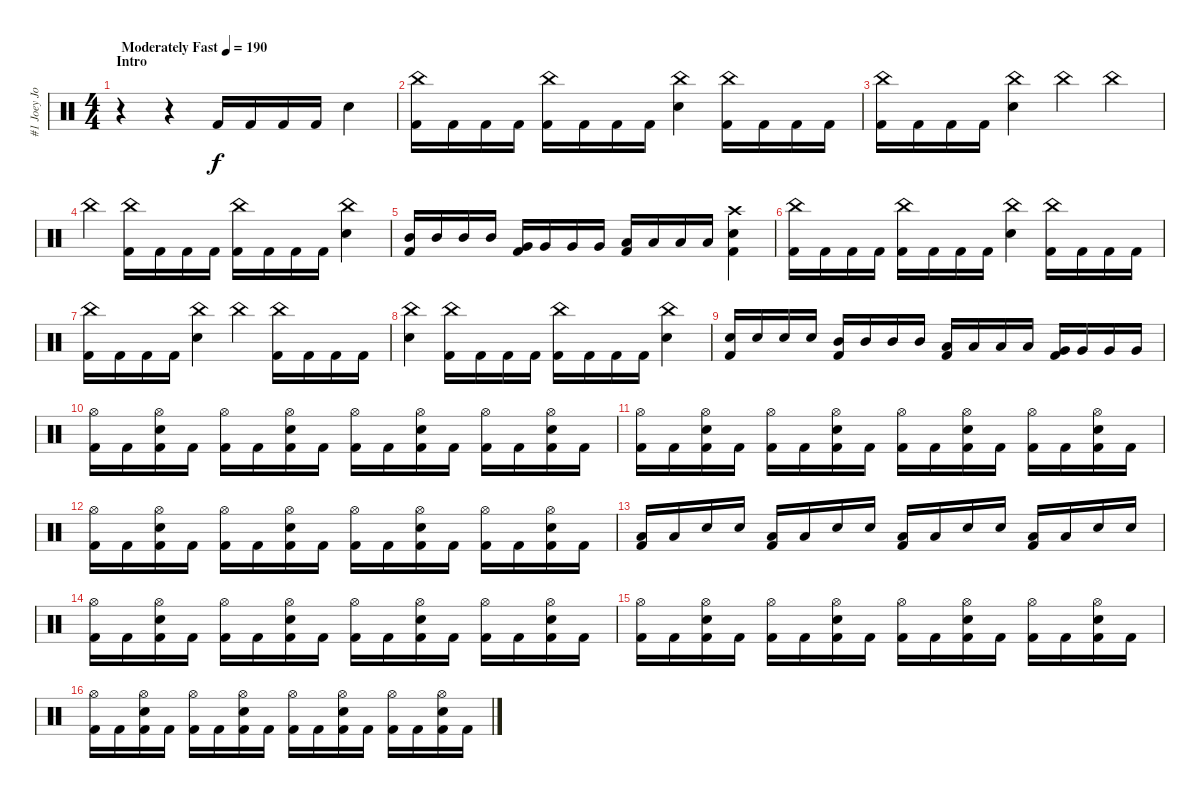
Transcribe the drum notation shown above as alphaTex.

\track ("#1 Joey Jordison" "#1 Joey Jo") {instrument percussion}
\staff {score}
\articulation defaults
\ts (4 4)
\section ("" "Intro")
\tempo (190 "Moderately Fast")
\clef neutral
\ks c
r.4{dy f} r.4 "Kick (hit) 2".16 "Kick (hit) 2".16 "Kick (hit) 2".16 "Kick (hit) 2".16 "Electric Snare (hit)".4 |
("China (hit)" "Kick (hit) 2").16 "Kick (hit) 2".16 "Kick (hit) 2".16 "Kick (hit) 2".16 ("China (hit)" "Kick (hit) 2").16 "Kick (hit) 2".16 "Kick (hit) 2".16 "Kick (hit) 2".16 ("China (hit)" "Electric Snare (hit)").4 ("China (hit)" "Kick (hit) 2").16 "Kick (hit) 2".16 "Kick (hit) 2".16 "Kick (hit) 2".16 |
("China (hit)" "Kick (hit) 2").16 "Kick (hit) 2".16 "Kick (hit) 2".16 "Kick (hit) 2".16 ("China (hit)" "Electric Snare (hit)").4 "China (hit)".4 "China (hit)".4 |
"China (hit)".4 ("China (hit)" "Kick (hit) 2").16 "Kick (hit) 2".16 "Kick (hit) 2".16 "Kick (hit) 2".16 ("China (hit)" "Kick (hit) 2").16 "Kick (hit) 2".16 "Kick (hit) 2".16 "Kick (hit) 2".16 ("China (hit)" "Electric Snare (hit)").4 |
("Mid Tom (hit)" "Kick (hit) 2").16 "Mid Tom (hit)".16 "Mid Tom (hit)".16 "Mid Tom (hit)".16 ("Very Low Tom (hit)" "Kick (hit) 2").16 "Very Low Tom (hit)".16 "Very Low Tom (hit)".16 "Very Low Tom (hit)".16 ("Low Floor Tom (hit)" "Kick (hit) 2").16 "Low Floor Tom (hit)".16 "Low Floor Tom (hit)".16 "Low Floor Tom (hit)".16 ("Crash high (hit)" "Electric Snare (hit)" "Kick (hit) 2").4 |
("China (hit)" "Kick (hit) 2").16 "Kick (hit) 2".16 "Kick (hit) 2".16 "Kick (hit) 2".16 ("China (hit)" "Kick (hit) 2").16 "Kick (hit) 2".16 "Kick (hit) 2".16 "Kick (hit) 2".16 ("China (hit)" "Electric Snare (hit)").4 ("China (hit)" "Kick (hit) 2").16 "Kick (hit) 2".16 "Kick (hit) 2".16 "Kick (hit) 2".16 |
("China (hit)" "Kick (hit) 2").16 "Kick (hit) 2".16 "Kick (hit) 2".16 "Kick (hit) 2".16 ("China (hit)" "Electric Snare (hit)").4 "China (hit)".4 ("China (hit)" "Kick (hit) 2").16 "Kick (hit) 2".16 "Kick (hit) 2".16 "Kick (hit) 2".16 |
("China (hit)" "Electric Snare (hit)").4 ("China (hit)" "Kick (hit) 2").16 "Kick (hit) 2".16 "Kick (hit) 2".16 "Kick (hit) 2".16 ("China (hit)" "Kick (hit) 2").16 "Kick (hit) 2".16 "Kick (hit) 2".16 "Kick (hit) 2".16 ("China (hit)" "Electric Snare (hit)").4 |
("Electric Snare (hit)" "Kick (hit) 2").16 "Electric Snare (hit)".16 "Electric Snare (hit)".16 "Electric Snare (hit)".16 ("Mid Tom (hit)" "Kick (hit) 2").16 "Mid Tom (hit)".16 "Mid Tom (hit)".16 "Mid Tom (hit)".16 ("Low Tom (hit)" "Kick (hit) 2").16 "Low Tom (hit)".16 "Low Tom (hit)".16 "Low Tom (hit)".16 ("Very Low Tom (hit)" "Kick (hit) 2").16 "Very Low Tom (hit)".16 "Very Low Tom (hit)".16 "Very Low Tom (hit)".16 |
("Hi-Hat (open)" "Kick (hit) 2").16 "Kick (hit) 2".16 ("Hi-Hat (open)" "Electric Snare (hit)" "Kick (hit) 2").16 "Kick (hit) 2".16 ("Hi-Hat (open)" "Kick (hit) 2").16 "Kick (hit) 2".16 ("Hi-Hat (open)" "Electric Snare (hit)" "Kick (hit) 2").16 "Kick (hit) 2".16 ("Hi-Hat (open)" "Kick (hit) 2").16 "Kick (hit) 2".16 ("Hi-Hat (open)" "Electric Snare (hit)" "Kick (hit) 2").16 "Kick (hit) 2".16 ("Hi-Hat (open)" "Kick (hit) 2").16 "Kick (hit) 2".16 ("Hi-Hat (open)" "Electric Snare (hit)" "Kick (hit) 2").16 "Kick (hit) 2".16 |
("Hi-Hat (open)" "Kick (hit) 2").16 "Kick (hit) 2".16 ("Hi-Hat (open)" "Electric Snare (hit)" "Kick (hit) 2").16 "Kick (hit) 2".16 ("Hi-Hat (open)" "Kick (hit) 2").16 "Kick (hit) 2".16 ("Hi-Hat (open)" "Electric Snare (hit)" "Kick (hit) 2").16 "Kick (hit) 2".16 ("Hi-Hat (open)" "Kick (hit) 2").16 "Kick (hit) 2".16 ("Hi-Hat (open)" "Electric Snare (hit)" "Kick (hit) 2").16 "Kick (hit) 2".16 ("Hi-Hat (open)" "Kick (hit) 2").16 "Kick (hit) 2".16 ("Hi-Hat (open)" "Electric Snare (hit)" "Kick (hit) 2").16 "Kick (hit) 2".16 |
("Hi-Hat (open)" "Kick (hit) 2").16 "Kick (hit) 2".16 ("Hi-Hat (open)" "Electric Snare (hit)" "Kick (hit) 2").16 "Kick (hit) 2".16 ("Hi-Hat (open)" "Kick (hit) 2").16 "Kick (hit) 2".16 ("Hi-Hat (open)" "Electric Snare (hit)" "Kick (hit) 2").16 "Kick (hit) 2".16 ("Hi-Hat (open)" "Kick (hit) 2").16 "Kick (hit) 2".16 ("Hi-Hat (open)" "Electric Snare (hit)" "Kick (hit) 2").16 "Kick (hit) 2".16 ("Hi-Hat (open)" "Kick (hit) 2").16 "Kick (hit) 2".16 ("Hi-Hat (open)" "Electric Snare (hit)" "Kick (hit) 2").16 "Kick (hit) 2".16 |
("Low Floor Tom (hit)" "Kick (hit) 2").16 "Low Floor Tom (hit)".16 "Electric Snare (hit)".16 "Electric Snare (hit)".16 ("Low Floor Tom (hit)" "Kick (hit) 2").16 "Low Floor Tom (hit)".16 "Electric Snare (hit)".16 "Electric Snare (hit)".16 ("Low Floor Tom (hit)" "Kick (hit) 2").16 "Low Floor Tom (hit)".16 "Electric Snare (hit)".16 "Electric Snare (hit)".16 ("Low Floor Tom (hit)" "Kick (hit) 2").16 "Low Floor Tom (hit)".16 "Electric Snare (hit)".16 "Electric Snare (hit)".16 |
("Hi-Hat (open)" "Kick (hit) 2").16 "Kick (hit) 2".16 ("Hi-Hat (open)" "Electric Snare (hit)" "Kick (hit) 2").16 "Kick (hit) 2".16 ("Hi-Hat (open)" "Kick (hit) 2").16 "Kick (hit) 2".16 ("Hi-Hat (open)" "Electric Snare (hit)" "Kick (hit) 2").16 "Kick (hit) 2".16 ("Hi-Hat (open)" "Kick (hit) 2").16 "Kick (hit) 2".16 ("Hi-Hat (open)" "Electric Snare (hit)" "Kick (hit) 2").16 "Kick (hit) 2".16 ("Hi-Hat (open)" "Kick (hit) 2").16 "Kick (hit) 2".16 ("Hi-Hat (open)" "Electric Snare (hit)" "Kick (hit) 2").16 "Kick (hit) 2".16 |
("Hi-Hat (open)" "Kick (hit) 2").16 "Kick (hit) 2".16 ("Hi-Hat (open)" "Electric Snare (hit)" "Kick (hit) 2").16 "Kick (hit) 2".16 ("Hi-Hat (open)" "Kick (hit) 2").16 "Kick (hit) 2".16 ("Hi-Hat (open)" "Electric Snare (hit)" "Kick (hit) 2").16 "Kick (hit) 2".16 ("Hi-Hat (open)" "Kick (hit) 2").16 "Kick (hit) 2".16 ("Hi-Hat (open)" "Electric Snare (hit)" "Kick (hit) 2").16 "Kick (hit) 2".16 ("Hi-Hat (open)" "Kick (hit) 2").16 "Kick (hit) 2".16 ("Hi-Hat (open)" "Electric Snare (hit)" "Kick (hit) 2").16 "Kick (hit) 2".16 |
("Hi-Hat (open)" "Kick (hit) 2").16 "Kick (hit) 2".16 ("Hi-Hat (open)" "Electric Snare (hit)" "Kick (hit) 2").16 "Kick (hit) 2".16 ("Hi-Hat (open)" "Kick (hit) 2").16 "Kick (hit) 2".16 ("Hi-Hat (open)" "Electric Snare (hit)" "Kick (hit) 2").16 "Kick (hit) 2".16 ("Hi-Hat (open)" "Kick (hit) 2").16 "Kick (hit) 2".16 ("Hi-Hat (open)" "Electric Snare (hit)" "Kick (hit) 2").16 "Kick (hit) 2".16 ("Hi-Hat (open)" "Kick (hit) 2").16 "Kick (hit) 2".16 ("Hi-Hat (open)" "Electric Snare (hit)" "Kick (hit) 2").16 "Kick (hit) 2".16
